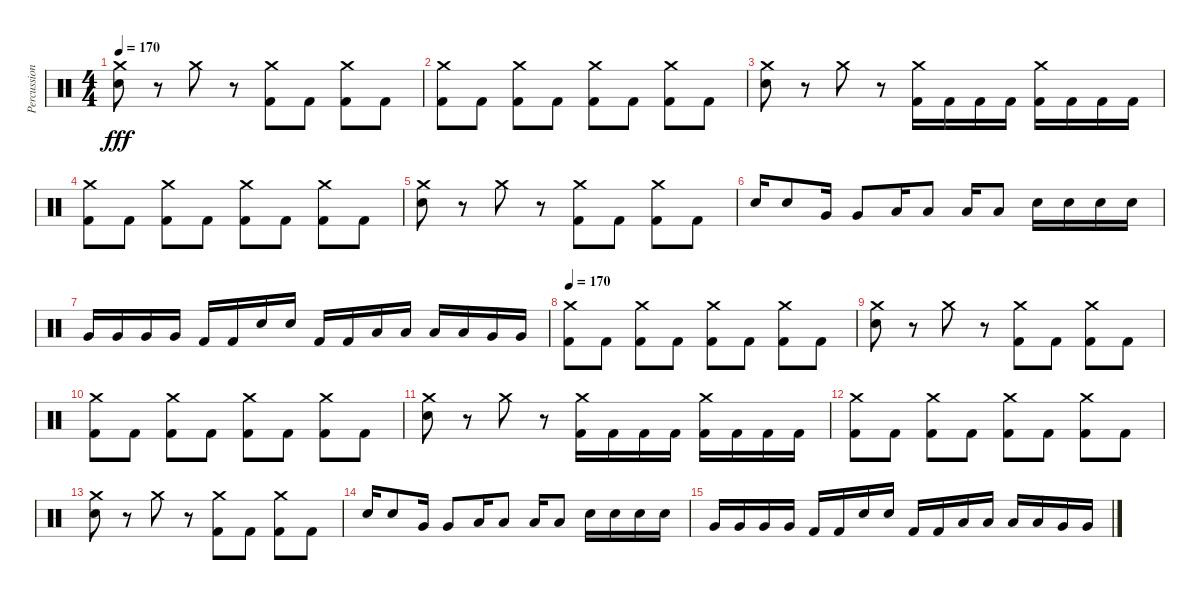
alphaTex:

\track ("Percussion" "Percussion") {instrument percussion}
\staff {score}
\articulation defaults
\ts (4 4)
\tempo 170
\clef neutral
\ks c
("Crash medium (hit)" "Electric Snare (hit)").8{dy fff} r.8 "Crash medium (hit)".8 r.8 ("Crash medium (hit)" "Kick (hit) 2").8 "Kick (hit) 2".8 ("Crash medium (hit)" "Kick (hit) 2").8 "Kick (hit) 2".8 |
("Crash medium (hit)" "Kick (hit) 2").8 "Kick (hit) 2".8 ("Crash medium (hit)" "Kick (hit) 2").8 "Kick (hit) 2".8 ("Crash medium (hit)" "Kick (hit) 2").8 "Kick (hit) 2".8 ("Crash medium (hit)" "Kick (hit) 2").8 "Kick (hit) 2".8 |
("Crash medium (hit)" "Electric Snare (hit)").8 r.8 "Crash medium (hit)".8 r.8 ("Crash medium (hit)" "Kick (hit) 2").16 "Kick (hit) 2".16 "Kick (hit) 2".16 "Kick (hit) 2".16 ("Crash medium (hit)" "Kick (hit) 2").16 "Kick (hit) 2".16 "Kick (hit) 2".16 "Kick (hit) 2".16 |
("Crash medium (hit)" "Kick (hit) 2").8 "Kick (hit) 2".8 ("Crash medium (hit)" "Kick (hit) 2").8 "Kick (hit) 2".8 ("Crash medium (hit)" "Kick (hit) 2").8 "Kick (hit) 2".8 ("Crash medium (hit)" "Kick (hit) 2").8 "Kick (hit) 2".8 |
("Crash medium (hit)" "Electric Snare (hit)").8 r.8 "Crash medium (hit)".8 r.8 ("Crash medium (hit)" "Kick (hit) 2").8 "Kick (hit) 2".8 ("Crash medium (hit)" "Kick (hit) 2").8 "Kick (hit) 2".8 |
"Electric Snare (hit)".16 "Electric Snare (hit)".8 "Very Low Tom (hit)".16 "Very Low Tom (hit)".8 "Low Tom (hit)".16 "Low Tom (hit)".8 "Low Floor Tom (hit)".16 "Low Floor Tom (hit)".8 "Electric Snare (hit)".16 "Electric Snare (hit)".16 "Electric Snare (hit)".16 "Electric Snare (hit)".16 |
"Very Low Tom (hit)".16 "Very Low Tom (hit)".16 "Very Low Tom (hit)".16 "Very Low Tom (hit)".16 "Kick (hit) 2".16 "Kick (hit) 2".16 "Electric Snare (hit)".16 "Electric Snare (hit)".16 "Kick (hit) 2".16 "Kick (hit) 2".16 "Low Tom (hit)".16 "Low Tom (hit)".16 "Low Tom (hit)".16 "Low Tom (hit)".16 "Very Low Tom (hit)".16 "Very Low Tom (hit)".16 |
\tempo 170
("Crash medium (hit)" "Kick (hit) 2").8 "Kick (hit) 2".8 ("Crash medium (hit)" "Kick (hit) 2").8 "Kick (hit) 2".8 ("Crash medium (hit)" "Kick (hit) 2").8 "Kick (hit) 2".8 ("Crash medium (hit)" "Kick (hit) 2").8 "Kick (hit) 2".8 |
("Crash medium (hit)" "Electric Snare (hit)").8 r.8 "Crash medium (hit)".8 r.8 ("Crash medium (hit)" "Kick (hit) 2").8 "Kick (hit) 2".8 ("Crash medium (hit)" "Kick (hit) 2").8 "Kick (hit) 2".8 |
("Crash medium (hit)" "Kick (hit) 2").8 "Kick (hit) 2".8 ("Crash medium (hit)" "Kick (hit) 2").8 "Kick (hit) 2".8 ("Crash medium (hit)" "Kick (hit) 2").8 "Kick (hit) 2".8 ("Crash medium (hit)" "Kick (hit) 2").8 "Kick (hit) 2".8 |
("Crash medium (hit)" "Electric Snare (hit)").8 r.8 "Crash medium (hit)".8 r.8 ("Crash medium (hit)" "Kick (hit) 2").16 "Kick (hit) 2".16 "Kick (hit) 2".16 "Kick (hit) 2".16 ("Crash medium (hit)" "Kick (hit) 2").16 "Kick (hit) 2".16 "Kick (hit) 2".16 "Kick (hit) 2".16 |
("Crash medium (hit)" "Kick (hit) 2").8 "Kick (hit) 2".8 ("Crash medium (hit)" "Kick (hit) 2").8 "Kick (hit) 2".8 ("Crash medium (hit)" "Kick (hit) 2").8 "Kick (hit) 2".8 ("Crash medium (hit)" "Kick (hit) 2").8 "Kick (hit) 2".8 |
("Crash medium (hit)" "Electric Snare (hit)").8 r.8 "Crash medium (hit)".8 r.8 ("Crash medium (hit)" "Kick (hit) 2").8 "Kick (hit) 2".8 ("Crash medium (hit)" "Kick (hit) 2").8 "Kick (hit) 2".8 |
"Electric Snare (hit)".16 "Electric Snare (hit)".8 "Very Low Tom (hit)".16 "Very Low Tom (hit)".8 "Low Tom (hit)".16 "Low Tom (hit)".8 "Low Floor Tom (hit)".16 "Low Floor Tom (hit)".8 "Electric Snare (hit)".16 "Electric Snare (hit)".16 "Electric Snare (hit)".16 "Electric Snare (hit)".16 |
"Very Low Tom (hit)".16 "Very Low Tom (hit)".16 "Very Low Tom (hit)".16 "Very Low Tom (hit)".16 "Kick (hit) 2".16 "Kick (hit) 2".16 "Electric Snare (hit)".16 "Electric Snare (hit)".16 "Kick (hit) 2".16 "Kick (hit) 2".16 "Low Tom (hit)".16 "Low Tom (hit)".16 "Low Tom (hit)".16 "Low Tom (hit)".16 "Very Low Tom (hit)".16 "Very Low Tom (hit)".16
